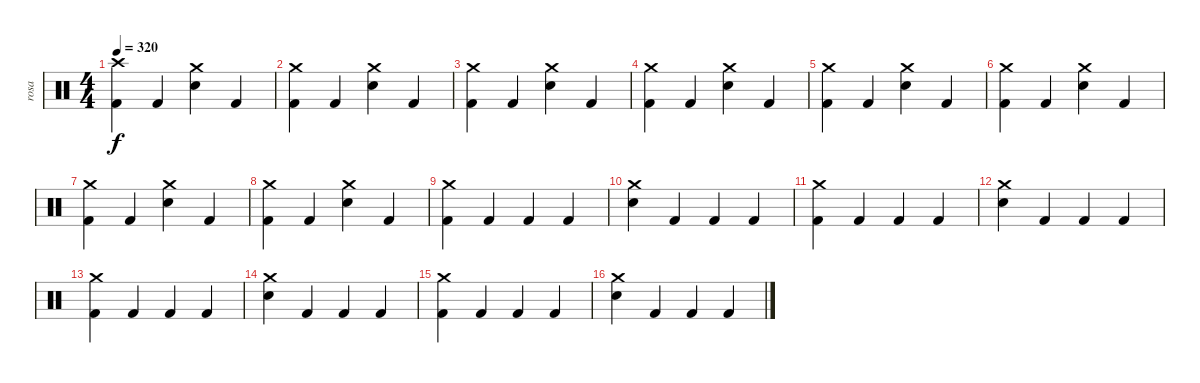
\track ("rosa" "rosa") {instrument percussion}
\staff {score}
\articulation defaults
\ts (4 4)
\tempo 320
\clef neutral
\ks c
("Crash high (hit)" "Kick (hit) 2").4{dy f} "Kick (hit) 2".4 ("Crash medium (hit)" "Electric Snare (hit)").4 "Kick (hit) 2".4 |
("Crash medium (hit)" "Kick (hit) 2").4 "Kick (hit) 2".4 ("Crash medium (hit)" "Electric Snare (hit)").4 "Kick (hit) 2".4 |
("Crash medium (hit)" "Kick (hit) 2").4 "Kick (hit) 2".4 ("Crash medium (hit)" "Electric Snare (hit)").4 "Kick (hit) 2".4 |
("Crash medium (hit)" "Kick (hit) 2").4 "Kick (hit) 2".4 ("Crash medium (hit)" "Electric Snare (hit)").4 "Kick (hit) 2".4 |
("Crash medium (hit)" "Kick (hit) 2").4 "Kick (hit) 2".4 ("Crash medium (hit)" "Electric Snare (hit)").4 "Kick (hit) 2".4 |
("Crash medium (hit)" "Kick (hit) 2").4 "Kick (hit) 2".4 ("Crash medium (hit)" "Electric Snare (hit)").4 "Kick (hit) 2".4 |
("Crash medium (hit)" "Kick (hit) 2").4 "Kick (hit) 2".4 ("Crash medium (hit)" "Electric Snare (hit)").4 "Kick (hit) 2".4 |
("Crash medium (hit)" "Kick (hit) 2").4 "Kick (hit) 2".4 ("Crash medium (hit)" "Electric Snare (hit)").4 "Kick (hit) 2".4 |
("Crash medium (hit)" "Kick (hit) 2").4 "Kick (hit) 2".4 "Kick (hit) 2".4 "Kick (hit) 2".4 |
("Crash medium (hit)" "Electric Snare (hit)").4 "Kick (hit) 2".4 "Kick (hit) 2".4 "Kick (hit) 2".4 |
("Crash medium (hit)" "Kick (hit) 2").4 "Kick (hit) 2".4 "Kick (hit) 2".4 "Kick (hit) 2".4 |
("Crash medium (hit)" "Electric Snare (hit)").4 "Kick (hit) 2".4 "Kick (hit) 2".4 "Kick (hit) 2".4 |
("Crash medium (hit)" "Kick (hit) 2").4 "Kick (hit) 2".4 "Kick (hit) 2".4 "Kick (hit) 2".4 |
("Crash medium (hit)" "Electric Snare (hit)").4 "Kick (hit) 2".4 "Kick (hit) 2".4 "Kick (hit) 2".4 |
("Crash medium (hit)" "Kick (hit) 2").4 "Kick (hit) 2".4 "Kick (hit) 2".4 "Kick (hit) 2".4 |
("Crash medium (hit)" "Electric Snare (hit)").4 "Kick (hit) 2".4 "Kick (hit) 2".4 "Kick (hit) 2".4
